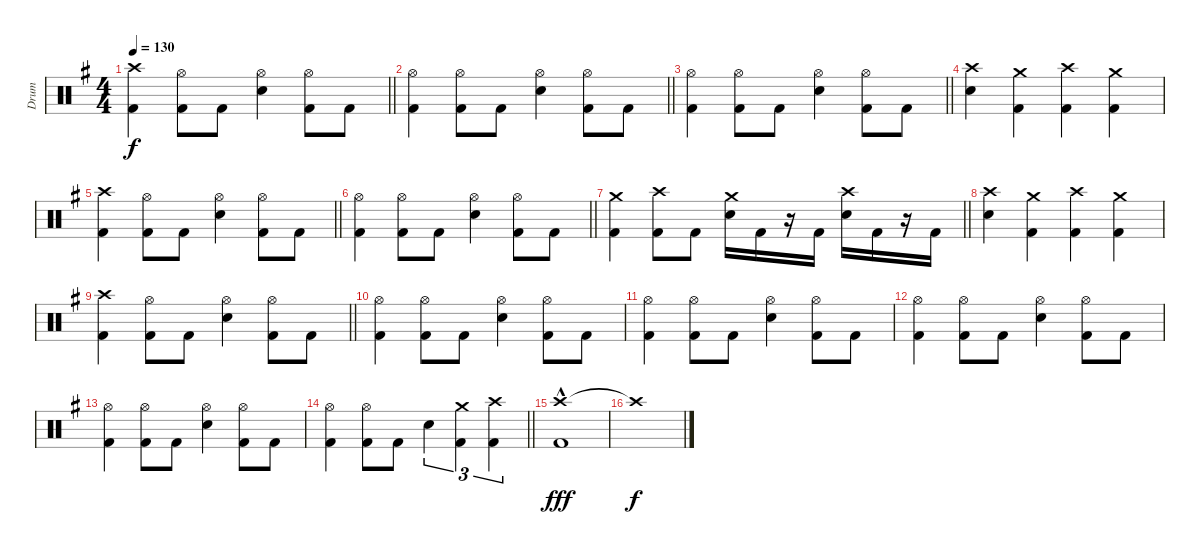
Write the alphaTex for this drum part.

\track ("Drum" "Drum") {instrument percussion}
\staff {score}
\articulation defaults
\ts (4 4)
\tempo 130
\clef neutral
\barLineRight lightlight
\ks eminor
("Crash high (hit)" "Kick (hit) 2").4{dy f} ("Hi-Hat (open)" "Kick (hit) 2").8 "Kick (hit) 2".8 ("Hi-Hat (open)" "Snare (hit) 2").4 ("Hi-Hat (open)" "Kick (hit) 2").8 "Kick (hit) 2".8 |
\section ("" "")
\barLineRight lightlight
("Hi-Hat (open)" "Kick (hit) 2").4 ("Hi-Hat (open)" "Kick (hit) 2").8 "Kick (hit) 2".8 ("Hi-Hat (open)" "Snare (hit) 2").4 ("Hi-Hat (open)" "Kick (hit) 2").8 "Kick (hit) 2".8 |
\barLineRight lightlight
("Hi-Hat (open)" "Kick (hit) 2").4 ("Hi-Hat (open)" "Kick (hit) 2").8 "Kick (hit) 2".8 ("Hi-Hat (open)" "Snare (hit) 2").4 ("Hi-Hat (open)" "Kick (hit) 2").8 "Kick (hit) 2".8 |
("Crash high (hit)" "Snare (hit) 2").4 ("Crash medium (hit)" "Kick (hit) 2").4 ("Crash high (hit)" "Kick (hit) 2").4 ("Crash medium (hit)" "Kick (hit) 2").4 |
\barLineRight lightlight
("Crash high (hit)" "Kick (hit) 2").4 ("Hi-Hat (open)" "Kick (hit) 2").8 "Kick (hit) 2".8 ("Hi-Hat (open)" "Snare (hit) 2").4 ("Hi-Hat (open)" "Kick (hit) 2").8 "Kick (hit) 2".8 |
\barLineRight lightlight
("Hi-Hat (open)" "Kick (hit) 2").4 ("Hi-Hat (open)" "Kick (hit) 2").8 "Kick (hit) 2".8 ("Hi-Hat (open)" "Snare (hit) 2").4 ("Hi-Hat (open)" "Kick (hit) 2").8 "Kick (hit) 2".8 |
\barLineRight lightlight
("Crash medium (hit)" "Kick (hit) 2").4 ("Crash high (hit)" "Kick (hit) 2").8 "Kick (hit) 2".8 ("Crash medium (hit)" "Snare (hit) 2").16 "Kick (hit) 2".16 r.16 "Kick (hit) 2".16 ("Crash high (hit)" "Snare (hit) 2").16 "Kick (hit) 2".16 r.16 "Kick (hit) 2".16 |
\section ("" "")
("Crash high (hit)" "Snare (hit) 2").4 ("Crash medium (hit)" "Kick (hit) 2").4 ("Crash high (hit)" "Kick (hit) 2").4 ("Crash medium (hit)" "Kick (hit) 2").4 |
\barLineRight lightlight
("Crash high (hit)" "Kick (hit) 2").4 ("Hi-Hat (open)" "Kick (hit) 2").8 "Kick (hit) 2".8 ("Hi-Hat (open)" "Snare (hit) 2").4 ("Hi-Hat (open)" "Kick (hit) 2").8 "Kick (hit) 2".8 |
("Hi-Hat (open)" "Kick (hit) 2").4 ("Hi-Hat (open)" "Kick (hit) 2").8 "Kick (hit) 2".8 ("Hi-Hat (open)" "Snare (hit) 2").4 ("Hi-Hat (open)" "Kick (hit) 2").8 "Kick (hit) 2".8 |
("Hi-Hat (open)" "Kick (hit) 2").4 ("Hi-Hat (open)" "Kick (hit) 2").8 "Kick (hit) 2".8 ("Hi-Hat (open)" "Snare (hit) 2").4 ("Hi-Hat (open)" "Kick (hit) 2").8 "Kick (hit) 2".8 |
("Hi-Hat (open)" "Kick (hit) 2").4 ("Hi-Hat (open)" "Kick (hit) 2").8 "Kick (hit) 2".8 ("Hi-Hat (open)" "Snare (hit) 2").4 ("Hi-Hat (open)" "Kick (hit) 2").8 "Kick (hit) 2".8 |
("Hi-Hat (open)" "Kick (hit) 2").4 ("Hi-Hat (open)" "Kick (hit) 2").8 "Kick (hit) 2".8 ("Hi-Hat (open)" "Snare (hit) 2").4 ("Hi-Hat (open)" "Kick (hit) 2").8 "Kick (hit) 2".8 |
\barLineRight lightlight
("Hi-Hat (open)" "Kick (hit) 2").4 ("Hi-Hat (open)" "Kick (hit) 2").8 "Kick (hit) 2".8 "Snare (hit) 2".4{tu (3 2)} ("Crash medium (hit)" "Kick (hit) 2").4{tu (3 2)} ("Crash high (hit)" "Kick (hit) 2").4{tu (3 2)} |
\section ("" "")
("Crash high (hit)"{hac} "Kick (hit) 2").1{dy fff} |
"Crash high (hit)"{t}.1{dy f}
